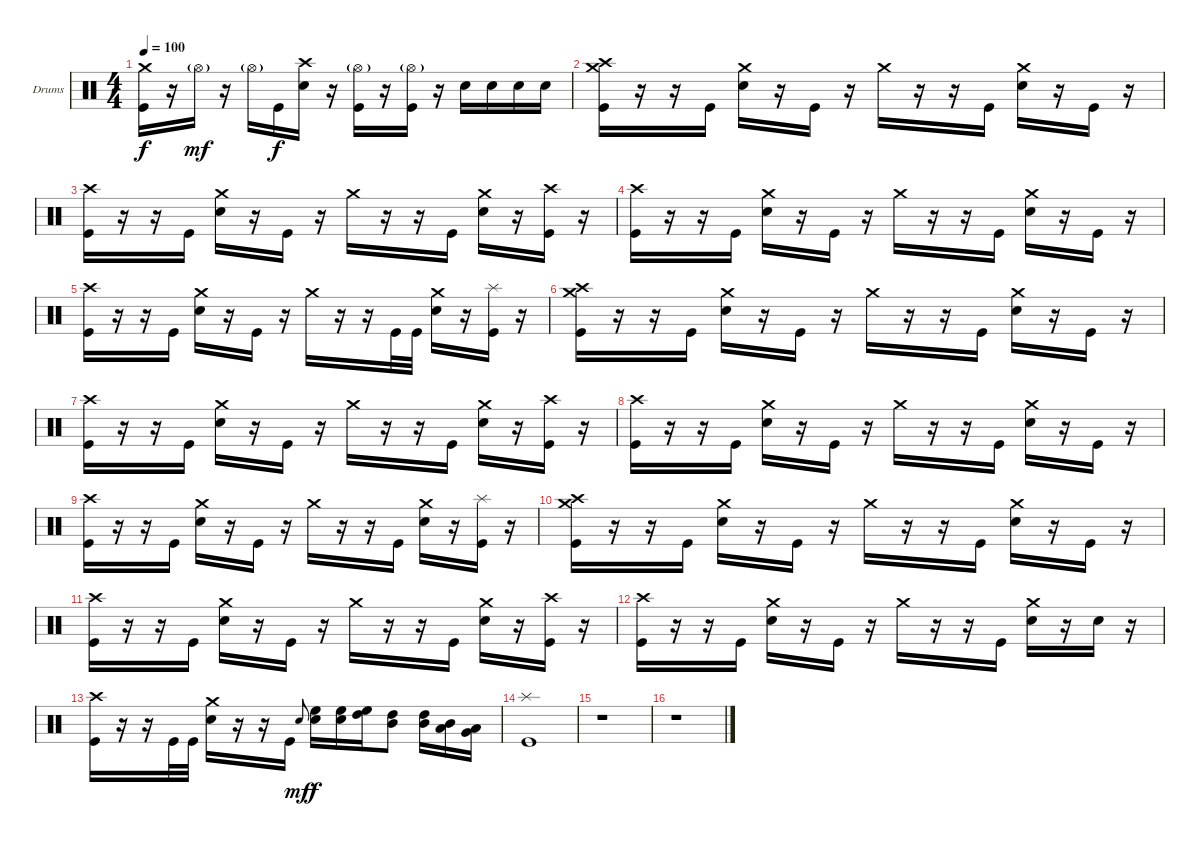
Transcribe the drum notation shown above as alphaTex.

\bracketExtendMode groupsimilarinstruments
\firstSystemTrackNameOrientation horizontal
\otherSystemsTrackNameOrientation horizontal
\track ("Drumkit (Christoph)" "Drums") {instrument percussion}
\staff {score}
\articulation defaults
\ts (4 4)
\tempo 100
\clef neutral
\ks c
("Crash medium (hit)" "Kick (hit)").16{dy f} r.16 "Hi-Hat (open)"{g}.16{dy mf} r.16 "Hi-Hat (open)"{g}.16 "Kick (hit)".16{dy f} ("Crash high (hit)" "Snare (hit) 2").16 r.16 ("Hi-Hat (open)"{g} "Kick (hit)").16 r.16 ("Hi-Hat (open)"{g} "Kick (hit)").16 r.16 "Snare (hit) 2".16 "Snare (hit) 2".16 "Snare (hit) 2".16 "Snare (hit) 2".16 |
("Crash medium (hit)" "Crash high (hit)" "Kick (hit)").16 r.16 r.16 "Kick (hit)".16 ("Crash medium (hit)" "Snare (hit) 2").16 r.16 "Kick (hit)".16 r.16 "Crash medium (hit)".16 r.16 r.16 "Kick (hit)".16 ("Crash medium (hit)" "Snare (hit) 2").16 r.16 "Kick (hit)".16 r.16 |
("Crash high (hit)" "Kick (hit)").16 r.16 r.16 "Kick (hit)".16 ("Crash medium (hit)" "Snare (hit) 2").16 r.16 "Kick (hit)".16 r.16 "Crash medium (hit)".16 r.16 r.16 "Kick (hit)".16 ("Crash medium (hit)" "Snare (hit) 2").16 r.16 ("Crash high (hit)" "Kick (hit)").16 r.16 |
("Crash high (hit)" "Kick (hit)").16 r.16 r.16 "Kick (hit)".16 ("Crash medium (hit)" "Snare (hit) 2").16 r.16 "Kick (hit)".16 r.16 "Crash medium (hit)".16 r.16 r.16 "Kick (hit)".16 ("Crash medium (hit)" "Snare (hit) 2").16 r.16 "Kick (hit)".16 r.16 |
("Crash high (hit)" "Kick (hit)").16 r.16 r.16 "Kick (hit)".16 ("Crash medium (hit)" "Snare (hit) 2").16 r.16 "Kick (hit)".16 r.16 "Crash medium (hit)".16 r.16 r.16 "Kick (hit)".32 "Kick (hit)".32 ("Crash medium (hit)" "Snare (hit) 2").16 r.16 ("Splash (hit)" "Kick (hit)").16 r.16 |
("Crash medium (hit)" "Crash high (hit)" "Kick (hit)").16 r.16 r.16 "Kick (hit)".16 ("Crash medium (hit)" "Snare (hit) 2").16 r.16 "Kick (hit)".16 r.16 "Crash medium (hit)".16 r.16 r.16 "Kick (hit)".16 ("Crash medium (hit)" "Snare (hit) 2").16 r.16 "Kick (hit)".16 r.16 |
("Crash high (hit)" "Kick (hit)").16 r.16 r.16 "Kick (hit)".16 ("Crash medium (hit)" "Snare (hit) 2").16 r.16 "Kick (hit)".16 r.16 "Crash medium (hit)".16 r.16 r.16 "Kick (hit)".16 ("Crash medium (hit)" "Snare (hit) 2").16 r.16 ("Crash high (hit)" "Kick (hit)").16 r.16 |
("Crash high (hit)" "Kick (hit)").16 r.16 r.16 "Kick (hit)".16 ("Crash medium (hit)" "Snare (hit) 2").16 r.16 "Kick (hit)".16 r.16 "Crash medium (hit)".16 r.16 r.16 "Kick (hit)".16 ("Crash medium (hit)" "Snare (hit) 2").16 r.16 "Kick (hit)".16 r.16 |
("Crash high (hit)" "Kick (hit)").16 r.16 r.16 "Kick (hit)".16 ("Crash medium (hit)" "Snare (hit) 2").16 r.16 "Kick (hit)".16 r.16 "Crash medium (hit)".16 r.16 r.16 "Kick (hit)".16 ("Crash medium (hit)" "Snare (hit) 2").16 r.16 ("Splash (hit)" "Kick (hit)").16 r.16 |
("Crash medium (hit)" "Crash high (hit)" "Kick (hit)").16 r.16 r.16 "Kick (hit)".16 ("Crash medium (hit)" "Snare (hit) 2").16 r.16 "Kick (hit)".16 r.16 "Crash medium (hit)".16 r.16 r.16 "Kick (hit)".16 ("Crash medium (hit)" "Snare (hit) 2").16 r.16 "Kick (hit)".16 r.16 |
("Crash high (hit)" "Kick (hit)").16 r.16 r.16 "Kick (hit)".16 ("Crash medium (hit)" "Snare (hit) 2").16 r.16 "Kick (hit)".16 r.16 "Crash medium (hit)".16 r.16 r.16 "Kick (hit)".16 ("Crash medium (hit)" "Snare (hit) 2").16 r.16 ("Crash high (hit)" "Kick (hit)").16 r.16 |
("Crash high (hit)" "Kick (hit)").16 r.16 r.16 "Kick (hit)".16 ("Crash medium (hit)" "Snare (hit) 2").16 r.16 "Kick (hit)".16 r.16 "Crash medium (hit)".16 r.16 r.16 "Kick (hit)".16 ("Crash medium (hit)" "Snare (hit) 2").16 r.16 "Snare (hit) 2".16 r.16 |
("Crash high (hit)" "Kick (hit)").16 r.16 r.16 "Kick (hit)".32 "Kick (hit)".32 ("Crash medium (hit)" "Snare (hit) 2").16 r.16 r.16 "Kick (hit)".16 "Snare (hit) 2".8{gr onbeat dy mf} ("High Floor Tom (hit)" "Snare (hit) 2").16{dy f} ("High Floor Tom (hit)" "Snare (hit) 2").16 ("High Floor Tom (hit)" "High Tom (hit)").16 ("High Tom (hit)" "Mid Tom (hit)").8 ("High Tom (hit)" "Mid Tom (hit)").16 ("Mid Tom (hit)" "Low Tom (hit)").16 ("Low Tom (hit)" "Very Low Tom (hit)").16 |
("Splash (hit)" "Kick (hit)").1 |
r.1 |
r.1
